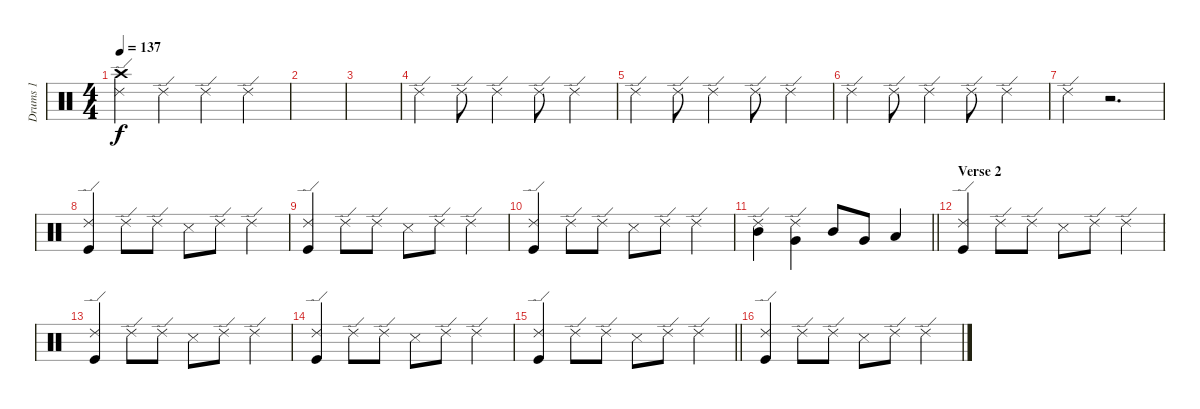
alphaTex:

\track ("Drums 1" "Drums 1") {instrument percussion}
\staff {score}
\articulation defaults
\ts (4 4)
\tempo 137
\clef neutral
\ks c
("Crash high (hit)" "Ride (edge) 2").4{dy f} "Ride (edge) 2".4 "Ride (edge) 2".4 "Ride (edge) 2".4 |
|
|
"Ride (edge) 2".4 "Ride (edge) 2".8 "Ride (edge) 2".4 "Ride (edge) 2".8 "Ride (edge) 2".4 |
"Ride (edge) 2".4 "Ride (edge) 2".8 "Ride (edge) 2".4 "Ride (edge) 2".8 "Ride (edge) 2".4 |
"Ride (edge) 2".4 "Ride (edge) 2".8 "Ride (edge) 2".4 "Ride (edge) 2".8 "Ride (edge) 2".4 |
"Ride (edge) 2".4 r.2{d} |
("Ride (edge) 2" "Kick (hit)").4 "Ride (edge) 2".8 "Ride (edge) 2".8 "Snare (side stick) 3".8 "Ride (edge) 2".8 "Ride (edge) 2".4 |
("Ride (edge) 2" "Kick (hit)").4 "Ride (edge) 2".8 "Ride (edge) 2".8 "Snare (side stick) 3".8 "Ride (edge) 2".8 "Ride (edge) 2".4 |
("Ride (edge) 2" "Kick (hit)").4 "Ride (edge) 2".8 "Ride (edge) 2".8 "Snare (side stick) 3".8 "Ride (edge) 2".8 "Ride (edge) 2".4 |
\barLineRight lightlight
("Ride (edge) 2" "Mid Tom (hit)").4 ("Ride (edge) 2" "Very Low Tom (hit)").4 "Mid Tom (hit)".8 "Very Low Tom (hit)".8 "Low Floor Tom (hit)".4 |
\section ("" "Verse 2")
("Ride (edge) 2" "Kick (hit)").4 "Ride (edge) 2".8 "Ride (edge) 2".8 "Snare (side stick) 3".8 "Ride (edge) 2".8 "Ride (edge) 2".4 |
("Ride (edge) 2" "Kick (hit)").4 "Ride (edge) 2".8 "Ride (edge) 2".8 "Snare (side stick) 3".8 "Ride (edge) 2".8 "Ride (edge) 2".4 |
("Ride (edge) 2" "Kick (hit)").4 "Ride (edge) 2".8 "Ride (edge) 2".8 "Snare (side stick) 3".8 "Ride (edge) 2".8 "Ride (edge) 2".4 |
\barLineRight lightlight
("Ride (edge) 2" "Kick (hit)").4 "Ride (edge) 2".8 "Ride (edge) 2".8 "Snare (side stick) 3".8 "Ride (edge) 2".8 "Ride (edge) 2".4 |
("Ride (edge) 2" "Kick (hit)").4 "Ride (edge) 2".8 "Ride (edge) 2".8 "Snare (side stick) 3".8 "Ride (edge) 2".8 "Ride (edge) 2".4
